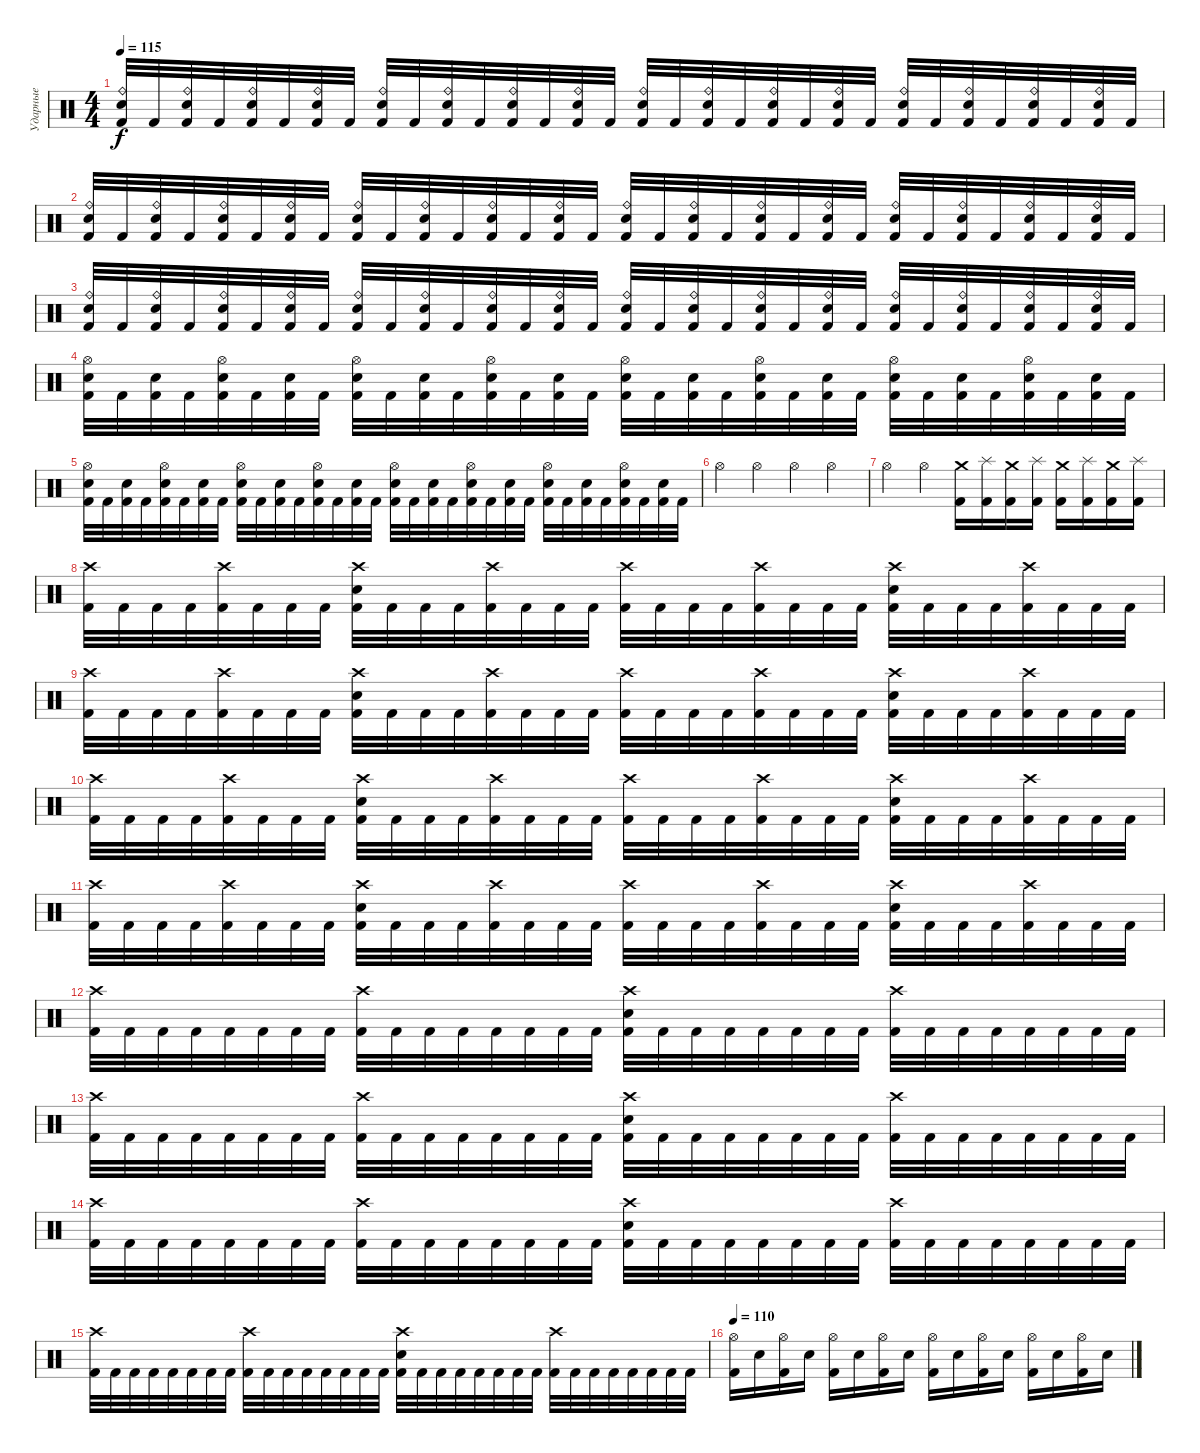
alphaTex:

\track ("Ударные" "Ударные") {instrument percussion}
\staff {score}
\articulation defaults
\ts (4 4)
\tempo 115
\clef neutral
\ks c
("Kick (hit) 2" "Ride (bell)" "Electric Snare (hit)").32{dy f} "Kick (hit) 2".32 ("Kick (hit) 2" "Ride (bell)" "Electric Snare (hit)").32 "Kick (hit) 2".32 ("Kick (hit) 2" "Ride (bell)" "Electric Snare (hit)").32 "Kick (hit) 2".32 ("Kick (hit) 2" "Ride (bell)" "Electric Snare (hit)").32 "Kick (hit) 2".32 ("Kick (hit) 2" "Ride (bell)" "Electric Snare (hit)").32 "Kick (hit) 2".32 ("Kick (hit) 2" "Ride (bell)" "Electric Snare (hit)").32 "Kick (hit) 2".32 ("Kick (hit) 2" "Ride (bell)" "Electric Snare (hit)").32 "Kick (hit) 2".32 ("Kick (hit) 2" "Ride (bell)" "Electric Snare (hit)").32 "Kick (hit) 2".32 ("Kick (hit) 2" "Ride (bell)" "Electric Snare (hit)").32 "Kick (hit) 2".32 ("Kick (hit) 2" "Ride (bell)" "Electric Snare (hit)").32 "Kick (hit) 2".32 ("Kick (hit) 2" "Ride (bell)" "Electric Snare (hit)").32 "Kick (hit) 2".32 ("Kick (hit) 2" "Ride (bell)" "Electric Snare (hit)").32 "Kick (hit) 2".32 ("Kick (hit) 2" "Ride (bell)" "Electric Snare (hit)").32 "Kick (hit) 2".32 ("Kick (hit) 2" "Ride (bell)" "Electric Snare (hit)").32 "Kick (hit) 2".32 ("Kick (hit) 2" "Ride (bell)" "Electric Snare (hit)").32 "Kick (hit) 2".32 ("Kick (hit) 2" "Ride (bell)" "Electric Snare (hit)").32 "Kick (hit) 2".32 |
("Kick (hit) 2" "Ride (bell)" "Electric Snare (hit)").32 "Kick (hit) 2".32 ("Kick (hit) 2" "Ride (bell)" "Electric Snare (hit)").32 "Kick (hit) 2".32 ("Kick (hit) 2" "Ride (bell)" "Electric Snare (hit)").32 "Kick (hit) 2".32 ("Kick (hit) 2" "Ride (bell)" "Electric Snare (hit)").32 "Kick (hit) 2".32 ("Kick (hit) 2" "Ride (bell)" "Electric Snare (hit)").32 "Kick (hit) 2".32 ("Kick (hit) 2" "Ride (bell)" "Electric Snare (hit)").32 "Kick (hit) 2".32 ("Kick (hit) 2" "Ride (bell)" "Electric Snare (hit)").32 "Kick (hit) 2".32 ("Kick (hit) 2" "Ride (bell)" "Electric Snare (hit)").32 "Kick (hit) 2".32 ("Kick (hit) 2" "Ride (bell)" "Electric Snare (hit)").32 "Kick (hit) 2".32 ("Kick (hit) 2" "Ride (bell)" "Electric Snare (hit)").32 "Kick (hit) 2".32 ("Kick (hit) 2" "Ride (bell)" "Electric Snare (hit)").32 "Kick (hit) 2".32 ("Kick (hit) 2" "Ride (bell)" "Electric Snare (hit)").32 "Kick (hit) 2".32 ("Kick (hit) 2" "Ride (bell)" "Electric Snare (hit)").32 "Kick (hit) 2".32 ("Kick (hit) 2" "Ride (bell)" "Electric Snare (hit)").32 "Kick (hit) 2".32 ("Kick (hit) 2" "Ride (bell)" "Electric Snare (hit)").32 "Kick (hit) 2".32 ("Kick (hit) 2" "Ride (bell)" "Electric Snare (hit)").32 "Kick (hit) 2".32 |
("Kick (hit) 2" "Ride (bell)" "Electric Snare (hit)").32 "Kick (hit) 2".32 ("Kick (hit) 2" "Ride (bell)" "Electric Snare (hit)").32 "Kick (hit) 2".32 ("Kick (hit) 2" "Ride (bell)" "Electric Snare (hit)").32 "Kick (hit) 2".32 ("Kick (hit) 2" "Ride (bell)" "Electric Snare (hit)").32 "Kick (hit) 2".32 ("Kick (hit) 2" "Ride (bell)" "Electric Snare (hit)").32 "Kick (hit) 2".32 ("Kick (hit) 2" "Ride (bell)" "Electric Snare (hit)").32 "Kick (hit) 2".32 ("Kick (hit) 2" "Ride (bell)" "Electric Snare (hit)").32 "Kick (hit) 2".32 ("Kick (hit) 2" "Ride (bell)" "Electric Snare (hit)").32 "Kick (hit) 2".32 ("Kick (hit) 2" "Ride (bell)" "Electric Snare (hit)").32 "Kick (hit) 2".32 ("Kick (hit) 2" "Ride (bell)" "Electric Snare (hit)").32 "Kick (hit) 2".32 ("Kick (hit) 2" "Ride (bell)" "Electric Snare (hit)").32 "Kick (hit) 2".32 ("Kick (hit) 2" "Ride (bell)" "Electric Snare (hit)").32 "Kick (hit) 2".32 ("Kick (hit) 2" "Ride (bell)" "Electric Snare (hit)").32 "Kick (hit) 2".32 ("Kick (hit) 2" "Ride (bell)" "Electric Snare (hit)").32 "Kick (hit) 2".32 ("Kick (hit) 2" "Ride (bell)" "Electric Snare (hit)").32 "Kick (hit) 2".32 ("Kick (hit) 2" "Ride (bell)" "Electric Snare (hit)").32 "Kick (hit) 2".32 |
("Kick (hit) 2" "Hi-Hat (open)" "Electric Snare (hit)").32 "Kick (hit) 2".32 ("Kick (hit) 2" "Electric Snare (hit)").32 "Kick (hit) 2".32 ("Kick (hit) 2" "Hi-Hat (open)" "Electric Snare (hit)").32 "Kick (hit) 2".32 ("Kick (hit) 2" "Electric Snare (hit)").32 "Kick (hit) 2".32 ("Kick (hit) 2" "Hi-Hat (open)" "Electric Snare (hit)").32 "Kick (hit) 2".32 ("Kick (hit) 2" "Electric Snare (hit)").32 "Kick (hit) 2".32 ("Kick (hit) 2" "Hi-Hat (open)" "Electric Snare (hit)").32 "Kick (hit) 2".32 ("Kick (hit) 2" "Electric Snare (hit)").32 "Kick (hit) 2".32 ("Kick (hit) 2" "Hi-Hat (open)" "Electric Snare (hit)").32 "Kick (hit) 2".32 ("Kick (hit) 2" "Electric Snare (hit)").32 "Kick (hit) 2".32 ("Kick (hit) 2" "Hi-Hat (open)" "Electric Snare (hit)").32 "Kick (hit) 2".32 ("Kick (hit) 2" "Electric Snare (hit)").32 "Kick (hit) 2".32 ("Kick (hit) 2" "Hi-Hat (open)" "Electric Snare (hit)").32 "Kick (hit) 2".32 ("Kick (hit) 2" "Electric Snare (hit)").32 "Kick (hit) 2".32 ("Kick (hit) 2" "Hi-Hat (open)" "Electric Snare (hit)").32 "Kick (hit) 2".32 ("Kick (hit) 2" "Electric Snare (hit)").32 "Kick (hit) 2".32 |
("Kick (hit) 2" "Hi-Hat (open)" "Electric Snare (hit)").32 "Kick (hit) 2".32 ("Kick (hit) 2" "Electric Snare (hit)").32 "Kick (hit) 2".32 ("Kick (hit) 2" "Hi-Hat (open)" "Electric Snare (hit)").32 "Kick (hit) 2".32 ("Kick (hit) 2" "Electric Snare (hit)").32 "Kick (hit) 2".32 ("Kick (hit) 2" "Hi-Hat (open)" "Electric Snare (hit)").32 "Kick (hit) 2".32 ("Kick (hit) 2" "Electric Snare (hit)").32 "Kick (hit) 2".32 ("Kick (hit) 2" "Hi-Hat (open)" "Electric Snare (hit)").32 "Kick (hit) 2".32 ("Kick (hit) 2" "Electric Snare (hit)").32 "Kick (hit) 2".32 ("Kick (hit) 2" "Hi-Hat (open)" "Electric Snare (hit)").32 "Kick (hit) 2".32 ("Kick (hit) 2" "Electric Snare (hit)").32 "Kick (hit) 2".32 ("Kick (hit) 2" "Hi-Hat (open)" "Electric Snare (hit)").32 "Kick (hit) 2".32 ("Kick (hit) 2" "Electric Snare (hit)").32 "Kick (hit) 2".32 ("Kick (hit) 2" "Hi-Hat (open)" "Electric Snare (hit)").32 "Kick (hit) 2".32 ("Kick (hit) 2" "Electric Snare (hit)").32 "Kick (hit) 2".32 ("Kick (hit) 2" "Hi-Hat (open)" "Electric Snare (hit)").32 "Kick (hit) 2".32 ("Kick (hit) 2" "Electric Snare (hit)").32 "Kick (hit) 2".32 |
"Hi-Hat (open)".4 "Hi-Hat (open)".4 "Hi-Hat (open)".4 "Hi-Hat (open)".4 |
"Hi-Hat (open)".4 "Hi-Hat (open)".4 ("Kick (hit) 2" "Crash medium (hit)").16 ("Kick (hit) 2" "Splash (hit)").16 ("Kick (hit) 2" "Crash medium (hit)").16 ("Kick (hit) 2" "Splash (hit)").16 ("Kick (hit) 2" "Crash medium (hit)").16 ("Kick (hit) 2" "Splash (hit)").16 ("Kick (hit) 2" "Crash medium (hit)").16 ("Kick (hit) 2" "Splash (hit)").16 |
("Kick (hit) 2" "Crash high (hit)").32 "Kick (hit) 2".32 "Kick (hit) 2".32 "Kick (hit) 2".32 ("Kick (hit) 2" "Crash high (hit)").32 "Kick (hit) 2".32 "Kick (hit) 2".32 "Kick (hit) 2".32 ("Kick (hit) 2" "Crash high (hit)" "Electric Snare (hit)").32 "Kick (hit) 2".32 "Kick (hit) 2".32 "Kick (hit) 2".32 ("Kick (hit) 2" "Crash high (hit)").32 "Kick (hit) 2".32 "Kick (hit) 2".32 "Kick (hit) 2".32 ("Kick (hit) 2" "Crash high (hit)").32 "Kick (hit) 2".32 "Kick (hit) 2".32 "Kick (hit) 2".32 ("Kick (hit) 2" "Crash high (hit)").32 "Kick (hit) 2".32 "Kick (hit) 2".32 "Kick (hit) 2".32 ("Kick (hit) 2" "Crash high (hit)" "Electric Snare (hit)").32 "Kick (hit) 2".32 "Kick (hit) 2".32 "Kick (hit) 2".32 ("Kick (hit) 2" "Crash high (hit)").32 "Kick (hit) 2".32 "Kick (hit) 2".32 "Kick (hit) 2".32 |
("Kick (hit) 2" "Crash high (hit)").32 "Kick (hit) 2".32 "Kick (hit) 2".32 "Kick (hit) 2".32 ("Kick (hit) 2" "Crash high (hit)").32 "Kick (hit) 2".32 "Kick (hit) 2".32 "Kick (hit) 2".32 ("Kick (hit) 2" "Crash high (hit)" "Electric Snare (hit)").32 "Kick (hit) 2".32 "Kick (hit) 2".32 "Kick (hit) 2".32 ("Kick (hit) 2" "Crash high (hit)").32 "Kick (hit) 2".32 "Kick (hit) 2".32 "Kick (hit) 2".32 ("Kick (hit) 2" "Crash high (hit)").32 "Kick (hit) 2".32 "Kick (hit) 2".32 "Kick (hit) 2".32 ("Kick (hit) 2" "Crash high (hit)").32 "Kick (hit) 2".32 "Kick (hit) 2".32 "Kick (hit) 2".32 ("Kick (hit) 2" "Crash high (hit)" "Electric Snare (hit)").32 "Kick (hit) 2".32 "Kick (hit) 2".32 "Kick (hit) 2".32 ("Kick (hit) 2" "Crash high (hit)").32 "Kick (hit) 2".32 "Kick (hit) 2".32 "Kick (hit) 2".32 |
("Kick (hit) 2" "Crash high (hit)").32 "Kick (hit) 2".32 "Kick (hit) 2".32 "Kick (hit) 2".32 ("Kick (hit) 2" "Crash high (hit)").32 "Kick (hit) 2".32 "Kick (hit) 2".32 "Kick (hit) 2".32 ("Kick (hit) 2" "Crash high (hit)" "Electric Snare (hit)").32 "Kick (hit) 2".32 "Kick (hit) 2".32 "Kick (hit) 2".32 ("Kick (hit) 2" "Crash high (hit)").32 "Kick (hit) 2".32 "Kick (hit) 2".32 "Kick (hit) 2".32 ("Kick (hit) 2" "Crash high (hit)").32 "Kick (hit) 2".32 "Kick (hit) 2".32 "Kick (hit) 2".32 ("Kick (hit) 2" "Crash high (hit)").32 "Kick (hit) 2".32 "Kick (hit) 2".32 "Kick (hit) 2".32 ("Kick (hit) 2" "Crash high (hit)" "Electric Snare (hit)").32 "Kick (hit) 2".32 "Kick (hit) 2".32 "Kick (hit) 2".32 ("Kick (hit) 2" "Crash high (hit)").32 "Kick (hit) 2".32 "Kick (hit) 2".32 "Kick (hit) 2".32 |
("Kick (hit) 2" "Crash high (hit)").32 "Kick (hit) 2".32 "Kick (hit) 2".32 "Kick (hit) 2".32 ("Kick (hit) 2" "Crash high (hit)").32 "Kick (hit) 2".32 "Kick (hit) 2".32 "Kick (hit) 2".32 ("Kick (hit) 2" "Crash high (hit)" "Electric Snare (hit)").32 "Kick (hit) 2".32 "Kick (hit) 2".32 "Kick (hit) 2".32 ("Kick (hit) 2" "Crash high (hit)").32 "Kick (hit) 2".32 "Kick (hit) 2".32 "Kick (hit) 2".32 ("Kick (hit) 2" "Crash high (hit)").32 "Kick (hit) 2".32 "Kick (hit) 2".32 "Kick (hit) 2".32 ("Kick (hit) 2" "Crash high (hit)").32 "Kick (hit) 2".32 "Kick (hit) 2".32 "Kick (hit) 2".32 ("Kick (hit) 2" "Crash high (hit)" "Electric Snare (hit)").32 "Kick (hit) 2".32 "Kick (hit) 2".32 "Kick (hit) 2".32 ("Kick (hit) 2" "Crash high (hit)").32 "Kick (hit) 2".32 "Kick (hit) 2".32 "Kick (hit) 2".32 |
("Kick (hit) 2" "Crash high (hit)").32 "Kick (hit) 2".32 "Kick (hit) 2".32 "Kick (hit) 2".32 "Kick (hit) 2".32 "Kick (hit) 2".32 "Kick (hit) 2".32 "Kick (hit) 2".32 ("Kick (hit) 2" "Crash high (hit)").32 "Kick (hit) 2".32 "Kick (hit) 2".32 "Kick (hit) 2".32 "Kick (hit) 2".32 "Kick (hit) 2".32 "Kick (hit) 2".32 "Kick (hit) 2".32 ("Kick (hit) 2" "Crash high (hit)" "Electric Snare (hit)").32 "Kick (hit) 2".32 "Kick (hit) 2".32 "Kick (hit) 2".32 "Kick (hit) 2".32 "Kick (hit) 2".32 "Kick (hit) 2".32 "Kick (hit) 2".32 ("Kick (hit) 2" "Crash high (hit)").32 "Kick (hit) 2".32 "Kick (hit) 2".32 "Kick (hit) 2".32 "Kick (hit) 2".32 "Kick (hit) 2".32 "Kick (hit) 2".32 "Kick (hit) 2".32 |
("Kick (hit) 2" "Crash high (hit)").32 "Kick (hit) 2".32 "Kick (hit) 2".32 "Kick (hit) 2".32 "Kick (hit) 2".32 "Kick (hit) 2".32 "Kick (hit) 2".32 "Kick (hit) 2".32 ("Kick (hit) 2" "Crash high (hit)").32 "Kick (hit) 2".32 "Kick (hit) 2".32 "Kick (hit) 2".32 "Kick (hit) 2".32 "Kick (hit) 2".32 "Kick (hit) 2".32 "Kick (hit) 2".32 ("Kick (hit) 2" "Crash high (hit)" "Electric Snare (hit)").32 "Kick (hit) 2".32 "Kick (hit) 2".32 "Kick (hit) 2".32 "Kick (hit) 2".32 "Kick (hit) 2".32 "Kick (hit) 2".32 "Kick (hit) 2".32 ("Kick (hit) 2" "Crash high (hit)").32 "Kick (hit) 2".32 "Kick (hit) 2".32 "Kick (hit) 2".32 "Kick (hit) 2".32 "Kick (hit) 2".32 "Kick (hit) 2".32 "Kick (hit) 2".32 |
("Kick (hit) 2" "Crash high (hit)").32 "Kick (hit) 2".32 "Kick (hit) 2".32 "Kick (hit) 2".32 "Kick (hit) 2".32 "Kick (hit) 2".32 "Kick (hit) 2".32 "Kick (hit) 2".32 ("Kick (hit) 2" "Crash high (hit)").32 "Kick (hit) 2".32 "Kick (hit) 2".32 "Kick (hit) 2".32 "Kick (hit) 2".32 "Kick (hit) 2".32 "Kick (hit) 2".32 "Kick (hit) 2".32 ("Kick (hit) 2" "Crash high (hit)" "Electric Snare (hit)").32 "Kick (hit) 2".32 "Kick (hit) 2".32 "Kick (hit) 2".32 "Kick (hit) 2".32 "Kick (hit) 2".32 "Kick (hit) 2".32 "Kick (hit) 2".32 ("Kick (hit) 2" "Crash high (hit)").32 "Kick (hit) 2".32 "Kick (hit) 2".32 "Kick (hit) 2".32 "Kick (hit) 2".32 "Kick (hit) 2".32 "Kick (hit) 2".32 "Kick (hit) 2".32 |
("Kick (hit) 2" "Crash high (hit)").32 "Kick (hit) 2".32 "Kick (hit) 2".32 "Kick (hit) 2".32 "Kick (hit) 2".32 "Kick (hit) 2".32 "Kick (hit) 2".32 "Kick (hit) 2".32 ("Kick (hit) 2" "Crash high (hit)").32 "Kick (hit) 2".32 "Kick (hit) 2".32 "Kick (hit) 2".32 "Kick (hit) 2".32 "Kick (hit) 2".32 "Kick (hit) 2".32 "Kick (hit) 2".32 ("Kick (hit) 2" "Crash high (hit)" "Electric Snare (hit)").32 "Kick (hit) 2".32 "Kick (hit) 2".32 "Kick (hit) 2".32 "Kick (hit) 2".32 "Kick (hit) 2".32 "Kick (hit) 2".32 "Kick (hit) 2".32 ("Kick (hit) 2" "Crash high (hit)").32 "Kick (hit) 2".32 "Kick (hit) 2".32 "Kick (hit) 2".32 "Kick (hit) 2".32 "Kick (hit) 2".32 "Kick (hit) 2".32 "Kick (hit) 2".32 |
\tempo 110
("Kick (hit) 2" "Hi-Hat (open)").16 "Electric Snare (hit)".16 ("Kick (hit) 2" "Hi-Hat (open)").16 "Electric Snare (hit)".16 ("Kick (hit) 2" "Hi-Hat (open)").16 "Electric Snare (hit)".16 ("Kick (hit) 2" "Hi-Hat (open)").16 "Electric Snare (hit)".16 ("Kick (hit) 2" "Hi-Hat (open)").16 "Electric Snare (hit)".16 ("Kick (hit) 2" "Hi-Hat (open)").16 "Electric Snare (hit)".16 ("Kick (hit) 2" "Hi-Hat (open)").16 "Electric Snare (hit)".16 ("Kick (hit) 2" "Hi-Hat (open)").16 "Electric Snare (hit)".16
